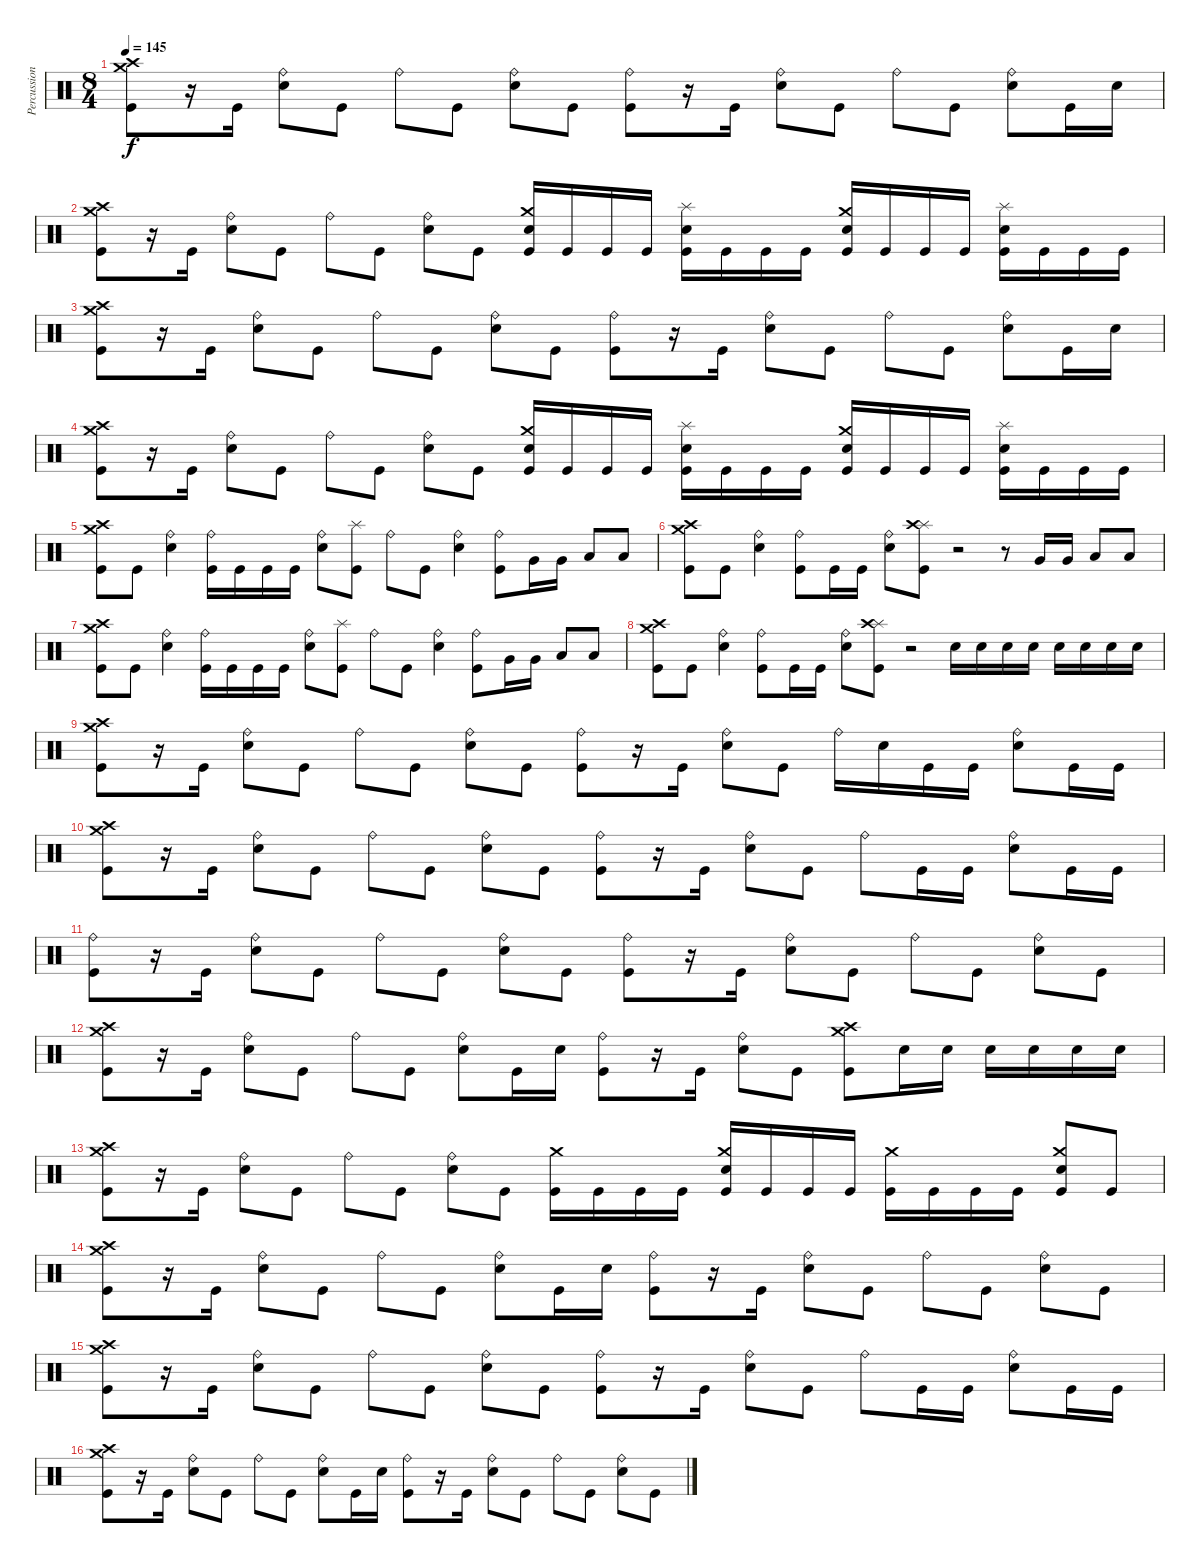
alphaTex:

\track ("Percussion" "Percussion") {instrument percussion}
\staff {score}
\articulation defaults
\ts (8 4)
\tempo 145
\clef neutral
\ks c
("Kick (hit)" "Crash high (hit)" "Crash medium (hit)").8{dy f} r.16 "Kick (hit)".16 ("Electric Snare (hit)" "Ride (bell)").8 "Kick (hit)".8 "Ride (bell)".8 "Kick (hit)".8 ("Electric Snare (hit)" "Ride (bell)").8 "Kick (hit)".8 ("Kick (hit)" "Ride (bell)").8 r.16 "Kick (hit)".16 ("Electric Snare (hit)" "Ride (bell)").8 "Kick (hit)".8 "Ride (bell)".8 "Kick (hit)".8 ("Electric Snare (hit)" "Ride (bell)").8 "Kick (hit)".16 "Electric Snare (hit)".16 |
("Kick (hit)" "Crash high (hit)" "Crash medium (hit)").8 r.16 "Kick (hit)".16 ("Electric Snare (hit)" "Ride (bell)").8 "Kick (hit)".8 "Ride (bell)".8 "Kick (hit)".8 ("Electric Snare (hit)" "Ride (bell)").8 "Kick (hit)".8 ("Kick (hit)" "Crash medium (hit)" "Electric Snare (hit)").16 "Kick (hit)".16 "Kick (hit)".16 "Kick (hit)".16 ("Kick (hit)" "Splash (hit)" "Electric Snare (hit)").16 "Kick (hit)".16 "Kick (hit)".16 "Kick (hit)".16 ("Kick (hit)" "Crash medium (hit)" "Electric Snare (hit)").16 "Kick (hit)".16 "Kick (hit)".16 "Kick (hit)".16 ("Kick (hit)" "Splash (hit)" "Electric Snare (hit)").16 "Kick (hit)".16 "Kick (hit)".16 "Kick (hit)".16 |
("Kick (hit)" "Crash high (hit)" "Crash medium (hit)").8 r.16 "Kick (hit)".16 ("Electric Snare (hit)" "Ride (bell)").8 "Kick (hit)".8 "Ride (bell)".8 "Kick (hit)".8 ("Electric Snare (hit)" "Ride (bell)").8 "Kick (hit)".8 ("Kick (hit)" "Ride (bell)").8 r.16 "Kick (hit)".16 ("Electric Snare (hit)" "Ride (bell)").8 "Kick (hit)".8 "Ride (bell)".8 "Kick (hit)".8 ("Electric Snare (hit)" "Ride (bell)").8 "Kick (hit)".16 "Electric Snare (hit)".16 |
("Kick (hit)" "Crash high (hit)" "Crash medium (hit)").8 r.16 "Kick (hit)".16 ("Electric Snare (hit)" "Ride (bell)").8 "Kick (hit)".8 "Ride (bell)".8 "Kick (hit)".8 ("Electric Snare (hit)" "Ride (bell)").8 "Kick (hit)".8 ("Kick (hit)" "Crash medium (hit)" "Electric Snare (hit)").16 "Kick (hit)".16 "Kick (hit)".16 "Kick (hit)".16 ("Kick (hit)" "Splash (hit)" "Electric Snare (hit)").16 "Kick (hit)".16 "Kick (hit)".16 "Kick (hit)".16 ("Kick (hit)" "Crash medium (hit)" "Electric Snare (hit)").16 "Kick (hit)".16 "Kick (hit)".16 "Kick (hit)".16 ("Kick (hit)" "Splash (hit)" "Electric Snare (hit)").16 "Kick (hit)".16 "Kick (hit)".16 "Kick (hit)".16 |
("Kick (hit)" "Crash high (hit)" "Crash medium (hit)").8 "Kick (hit)".8 ("Electric Snare (hit)" "Ride (bell)").4 ("Kick (hit)" "Ride (bell)").16 "Kick (hit)".16 "Kick (hit)".16 "Kick (hit)".16 ("Electric Snare (hit)" "Ride (bell)").8 ("Kick (hit)" "Splash (hit)").8 "Ride (bell)".8 "Kick (hit)".8 ("Electric Snare (hit)" "Ride (bell)").4 ("Kick (hit)" "Ride (bell)").8 "Very Low Tom (hit)".16 "Very Low Tom (hit)".16 "Low Floor Tom (hit)".8 "Low Floor Tom (hit)".8 |
("Kick (hit)" "Crash medium (hit)" "Crash high (hit)").8 "Kick (hit)".8 ("Electric Snare (hit)" "Ride (bell)").4 ("Kick (hit)" "Ride (bell)").8 "Kick (hit)".16 "Kick (hit)".16 ("Electric Snare (hit)" "Ride (bell)").8 ("Kick (hit)" "Splash (hit)" "Crash high (hit)").8 r.2 r.8 "Very Low Tom (hit)".16 "Very Low Tom (hit)".16 "Low Floor Tom (hit)".8 "Low Floor Tom (hit)".8 |
("Kick (hit)" "Crash high (hit)" "Crash medium (hit)").8 "Kick (hit)".8 ("Electric Snare (hit)" "Ride (bell)").4 ("Kick (hit)" "Ride (bell)").16 "Kick (hit)".16 "Kick (hit)".16 "Kick (hit)".16 ("Electric Snare (hit)" "Ride (bell)").8 ("Kick (hit)" "Splash (hit)").8 "Ride (bell)".8 "Kick (hit)".8 ("Electric Snare (hit)" "Ride (bell)").4 ("Kick (hit)" "Ride (bell)").8 "Very Low Tom (hit)".16 "Very Low Tom (hit)".16 "Low Floor Tom (hit)".8 "Low Floor Tom (hit)".8 |
("Kick (hit)" "Crash medium (hit)" "Crash high (hit)").8 "Kick (hit)".8 ("Electric Snare (hit)" "Ride (bell)").4 ("Kick (hit)" "Ride (bell)").8 "Kick (hit)".16 "Kick (hit)".16 ("Electric Snare (hit)" "Ride (bell)").8 ("Kick (hit)" "Splash (hit)" "Crash high (hit)").8 r.2 "Electric Snare (hit)".16 "Electric Snare (hit)".16 "Electric Snare (hit)".16 "Electric Snare (hit)".16 "Electric Snare (hit)".16 "Electric Snare (hit)".16 "Electric Snare (hit)".16 "Electric Snare (hit)".16 |
("Kick (hit)" "Crash high (hit)" "Crash medium (hit)").8 r.16 "Kick (hit)".16 ("Electric Snare (hit)" "Ride (bell)").8 "Kick (hit)".8 "Ride (bell)".8 "Kick (hit)".8 ("Electric Snare (hit)" "Ride (bell)").8 "Kick (hit)".8 ("Kick (hit)" "Ride (bell)").8 r.16 "Kick (hit)".16 ("Electric Snare (hit)" "Ride (bell)").8 "Kick (hit)".8 "Ride (bell)".16 "Electric Snare (hit)".16 "Kick (hit)".16 "Kick (hit)".16 ("Electric Snare (hit)" "Ride (bell)").8 "Kick (hit)".16 "Kick (hit)".16 |
("Kick (hit)" "Crash high (hit)" "Crash medium (hit)").8 r.16 "Kick (hit)".16 ("Electric Snare (hit)" "Ride (bell)").8 "Kick (hit)".8 "Ride (bell)".8 "Kick (hit)".8 ("Electric Snare (hit)" "Ride (bell)").8 "Kick (hit)".8 ("Kick (hit)" "Ride (bell)").8 r.16 "Kick (hit)".16 ("Electric Snare (hit)" "Ride (bell)").8 "Kick (hit)".8 "Ride (bell)".8 "Kick (hit)".16 "Kick (hit)".16 ("Electric Snare (hit)" "Ride (bell)").8 "Kick (hit)".16 "Kick (hit)".16 |
("Kick (hit)" "Ride (bell)").8 r.16 "Kick (hit)".16 ("Electric Snare (hit)" "Ride (bell)").8 "Kick (hit)".8 "Ride (bell)".8 "Kick (hit)".8 ("Electric Snare (hit)" "Ride (bell)").8 "Kick (hit)".8 ("Kick (hit)" "Ride (bell)").8 r.16 "Kick (hit)".16 ("Electric Snare (hit)" "Ride (bell)").8 "Kick (hit)".8 "Ride (bell)".8 "Kick (hit)".8 ("Electric Snare (hit)" "Ride (bell)").8 "Kick (hit)".8 |
("Kick (hit)" "Crash high (hit)" "Crash medium (hit)").8 r.16 "Kick (hit)".16 ("Electric Snare (hit)" "Ride (bell)").8 "Kick (hit)".8 "Ride (bell)".8 "Kick (hit)".8 ("Electric Snare (hit)" "Ride (bell)").8 "Kick (hit)".16 "Electric Snare (hit)".16 ("Kick (hit)" "Ride (bell)").8 r.16 "Kick (hit)".16 ("Electric Snare (hit)" "Ride (bell)").8 "Kick (hit)".8 ("Kick (hit)" "Crash medium (hit)" "Crash high (hit)").8 "Electric Snare (hit)".16 "Electric Snare (hit)".16 "Electric Snare (hit)".16 "Electric Snare (hit)".16 "Electric Snare (hit)".16 "Electric Snare (hit)".16 |
("Kick (hit)" "Crash high (hit)" "Crash medium (hit)").8 r.16 "Kick (hit)".16 ("Electric Snare (hit)" "Ride (bell)").8 "Kick (hit)".8 "Ride (bell)".8 "Kick (hit)".8 ("Electric Snare (hit)" "Ride (bell)").8 "Kick (hit)".8 ("Kick (hit)" "Crash medium (hit)").16 "Kick (hit)".16 "Kick (hit)".16 "Kick (hit)".16 ("Kick (hit)" "Crash medium (hit)" "Electric Snare (hit)").16 "Kick (hit)".16 "Kick (hit)".16 "Kick (hit)".16 ("Kick (hit)" "Crash medium (hit)").16 "Kick (hit)".16 "Kick (hit)".16 "Kick (hit)".16 ("Kick (hit)" "Crash medium (hit)" "Electric Snare (hit)").8 "Kick (hit)".8 |
("Kick (hit)" "Crash high (hit)" "Crash medium (hit)").8 r.16 "Kick (hit)".16 ("Electric Snare (hit)" "Ride (bell)").8 "Kick (hit)".8 "Ride (bell)".8 "Kick (hit)".8 ("Electric Snare (hit)" "Ride (bell)").8 "Kick (hit)".16 "Electric Snare (hit)".16 ("Kick (hit)" "Ride (bell)").8 r.16 "Kick (hit)".16 ("Electric Snare (hit)" "Ride (bell)").8 "Kick (hit)".8 "Ride (bell)".8 "Kick (hit)".8 ("Electric Snare (hit)" "Ride (bell)").8 "Kick (hit)".8 |
("Kick (hit)" "Crash high (hit)" "Crash medium (hit)").8 r.16 "Kick (hit)".16 ("Electric Snare (hit)" "Ride (bell)").8 "Kick (hit)".8 "Ride (bell)".8 "Kick (hit)".8 ("Electric Snare (hit)" "Ride (bell)").8 "Kick (hit)".8 ("Kick (hit)" "Ride (bell)").8 r.16 "Kick (hit)".16 ("Electric Snare (hit)" "Ride (bell)").8 "Kick (hit)".8 "Ride (bell)".8 "Kick (hit)".16 "Kick (hit)".16 ("Electric Snare (hit)" "Ride (bell)").8 "Kick (hit)".16 "Kick (hit)".16 |
("Kick (hit)" "Crash high (hit)" "Crash medium (hit)").8 r.16 "Kick (hit)".16 ("Electric Snare (hit)" "Ride (bell)").8 "Kick (hit)".8 "Ride (bell)".8 "Kick (hit)".8 ("Electric Snare (hit)" "Ride (bell)").8 "Kick (hit)".16 "Electric Snare (hit)".16 ("Kick (hit)" "Ride (bell)").8 r.16 "Kick (hit)".16 ("Electric Snare (hit)" "Ride (bell)").8 "Kick (hit)".8 "Ride (bell)".8 "Kick (hit)".8 ("Electric Snare (hit)" "Ride (bell)").8 "Kick (hit)".8
